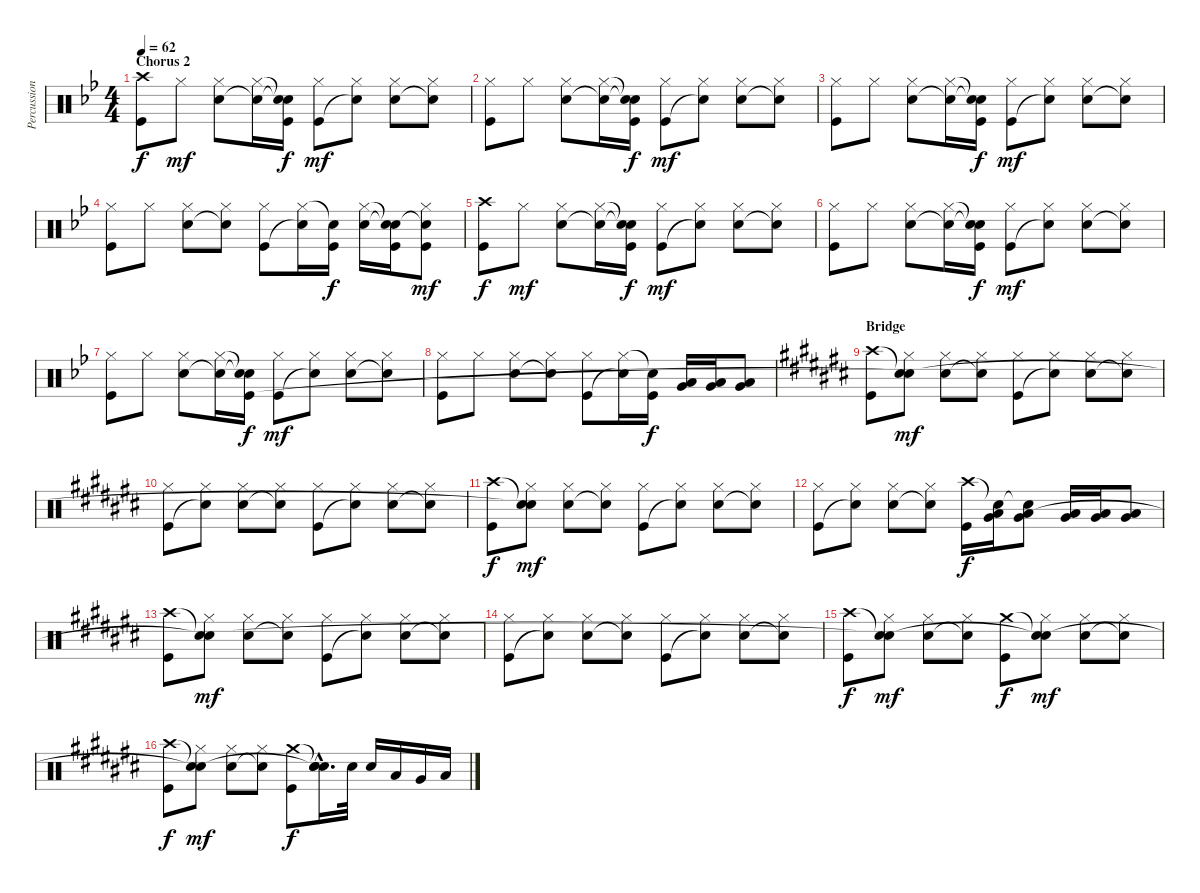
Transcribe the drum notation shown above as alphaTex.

\track ("Percussion" "Percussion") {instrument percussion}
\staff {score}
\articulation defaults
\ts (4 4)
\section ("" "Chorus 2")
\tempo 62
\clef neutral
\ks bb
("Crash high (hit)" "Kick (hit)").8{dy f} "Hi-Hat (closed)".8{dy mf} ("Hi-Hat (closed)" "Snare (hit) 2").8 ("Hi-Hat (closed)" "Snare (hit)"{t}).16 ("Snare (hit)"{t} "Snare (hit)"{t} "Kick (hit)").16{dy f} ("Hi-Hat (closed)" "Kick (hit)").8{dy mf} ("Hi-Hat (closed)" "Snare (hit)"{t}).8 ("Hi-Hat (closed)" "Snare (hit) 2").8 ("Hi-Hat (closed)" "Snare (hit)"{t}).8 |
("Hi-Hat (closed)" "Kick (hit)").8 "Hi-Hat (closed)".8 ("Hi-Hat (closed)" "Snare (hit) 2").8 ("Hi-Hat (closed)" "Snare (hit)"{t}).16 ("Snare (hit)"{t} "Snare (hit)"{t} "Kick (hit)").16{dy f} ("Hi-Hat (closed)" "Kick (hit)").8{dy mf} ("Hi-Hat (closed)" "Snare (hit)"{t}).8 ("Hi-Hat (closed)" "Snare (hit) 2").8 ("Hi-Hat (closed)" "Snare (hit)"{t}).8 |
("Hi-Hat (closed)" "Kick (hit)").8 "Hi-Hat (closed)".8 ("Hi-Hat (closed)" "Snare (hit) 2").8 ("Hi-Hat (closed)" "Snare (hit)"{t}).16 ("Snare (hit)"{t} "Snare (hit)"{t} "Kick (hit)").16{dy f} ("Hi-Hat (closed)" "Kick (hit)").8{dy mf} ("Hi-Hat (closed)" "Snare (hit)"{t}).8 ("Hi-Hat (closed)" "Snare (hit) 2").8 ("Hi-Hat (closed)" "Snare (hit)"{t}).8 |
("Hi-Hat (closed)" "Kick (hit)").8 "Hi-Hat (closed)".8 ("Hi-Hat (closed)" "Snare (hit) 2").8 ("Hi-Hat (closed)" "Snare (hit)"{t}).8 ("Hi-Hat (closed)" "Kick (hit)").8 ("Hi-Hat (closed)" "Snare (hit)"{t}).16 ("Snare (hit)"{t} "Kick (hit)").16{dy f} ("Hi-Hat (closed)" "Snare (hit) 2").16 ("Snare (hit)"{t} "Snare (hit)"{t} "Kick (hit)").16 ("Hi-Hat (closed)" "Snare (hit)"{t} "Kick (hit)").8{dy mf} |
("Crash high (hit)" "Kick (hit)").8{dy f} "Hi-Hat (closed)".8{dy mf} ("Hi-Hat (closed)" "Snare (hit) 2").8 ("Hi-Hat (closed)" "Snare (hit)"{t}).16 ("Snare (hit)"{t} "Snare (hit)"{t} "Kick (hit)").16{dy f} ("Hi-Hat (closed)" "Kick (hit)").8{dy mf} ("Hi-Hat (closed)" "Snare (hit)"{t}).8 ("Hi-Hat (closed)" "Snare (hit) 2").8 ("Hi-Hat (closed)" "Snare (hit)"{t}).8 |
("Hi-Hat (closed)" "Kick (hit)").8 "Hi-Hat (closed)".8 ("Hi-Hat (closed)" "Snare (hit) 2").8 ("Hi-Hat (closed)" "Snare (hit)"{t}).16 ("Snare (hit)"{t} "Snare (hit)"{t} "Kick (hit)").16{dy f} ("Hi-Hat (closed)" "Kick (hit)").8{dy mf} ("Hi-Hat (closed)" "Snare (hit)"{t}).8 ("Hi-Hat (closed)" "Snare (hit) 2").8 ("Hi-Hat (closed)" "Snare (hit)"{t}).8 |
("Hi-Hat (closed)" "Kick (hit)").8 "Hi-Hat (closed)".8 ("Hi-Hat (closed)" "Snare (hit) 2").8 ("Hi-Hat (closed)" "Snare (hit)"{t}).16 ("Snare (hit)"{t} "Snare (hit)"{t} "Kick (hit)").16{dy f} ("Hi-Hat (closed)" "Kick (hit)").8{dy mf} ("Hi-Hat (closed)" "Snare (hit)"{t}).8 ("Hi-Hat (closed)" "Snare (hit) 2").8 ("Hi-Hat (closed)" "Snare (hit)"{t}).8 |
("Hi-Hat (closed)" "Kick (hit)").8 "Hi-Hat (closed)".8 ("Hi-Hat (closed)" "Snare (hit) 2").8 ("Hi-Hat (closed)" "Snare (hit)"{t}).8 ("Hi-Hat (closed)" "Kick (hit)").8 ("Hi-Hat (closed)" "Snare (hit)"{t}).16 ("Snare (hit)"{t} "Kick (hit)").16{dy f} ("Very Low Tom (hit)" "Low Tom (hit)").16 ("Very Low Tom (hit)" "Low Tom (hit)").16 ("Low Floor Tom (hit)" "Very Low Tom (hit)").8 |
\section ("" "Bridge")
\ks c#
("Crash high (hit)" "Kick (hit)").8 ("Snare (hit)"{t} "Hi-Hat (closed)" "Snare (hit)"{t}).8{dy mf} ("Hi-Hat (closed)" "Snare (hit) 2").8 ("Hi-Hat (closed)" "Snare (hit)"{t}).8 ("Hi-Hat (closed)" "Kick (hit)").8 ("Hi-Hat (closed)" "Snare (hit)"{t}).8 ("Hi-Hat (closed)" "Snare (hit) 2").8 ("Hi-Hat (closed)" "Snare (hit)"{t}).8 |
("Hi-Hat (closed)" "Kick (hit)").8 ("Hi-Hat (closed)" "Snare (hit)"{t}).8 ("Hi-Hat (closed)" "Snare (hit) 2").8 ("Hi-Hat (closed)" "Snare (hit)"{t}).8 ("Hi-Hat (closed)" "Kick (hit)").8 ("Hi-Hat (closed)" "Snare (hit)"{t}).8 ("Hi-Hat (closed)" "Snare (hit) 2").8 ("Hi-Hat (closed)" "Snare (hit)"{t}).8 |
("Crash high (hit)" "Kick (hit)").8{dy f} ("Snare (hit)"{t} "Hi-Hat (closed)" "Snare (hit)"{t}).8{dy mf} ("Hi-Hat (closed)" "Snare (hit) 2").8 ("Hi-Hat (closed)" "Snare (hit)"{t}).8 ("Hi-Hat (closed)" "Kick (hit)").8 ("Hi-Hat (closed)" "Snare (hit)"{t}).8 ("Hi-Hat (closed)" "Snare (hit) 2").8 ("Hi-Hat (closed)" "Snare (hit)"{t}).8 |
("Hi-Hat (closed)" "Kick (hit)").8 ("Hi-Hat (closed)" "Snare (hit)"{t}).8 ("Hi-Hat (closed)" "Snare (hit) 2").8 ("Hi-Hat (closed)" "Snare (hit)"{t}).8 ("Crash high (hit)" "Kick (hit)").16{dy f} ("Snare (hit)"{t} "Very Low Tom (hit)" "Low Tom (hit)").16 ("Snare (hit)"{t} "Very Low Tom (hit)" "Low Tom (hit)").8 ("Very Low Tom (hit)" "Low Tom (hit)").16 ("Low Floor Tom (hit)" "Very Low Tom (hit)").16 ("Low Floor Tom (hit)" "Very Low Tom (hit)").8 |
("Crash high (hit)" "Kick (hit)").8 ("Snare (hit)"{t} "Hi-Hat (closed)" "Snare (hit)"{t}).8{dy mf} ("Hi-Hat (closed)" "Snare (hit) 2").8 ("Hi-Hat (closed)" "Snare (hit)"{t}).8 ("Hi-Hat (closed)" "Kick (hit)").8 ("Hi-Hat (closed)" "Snare (hit)"{t}).8 ("Hi-Hat (closed)" "Snare (hit) 2").8 ("Hi-Hat (closed)" "Snare (hit)"{t}).8 |
("Hi-Hat (closed)" "Kick (hit)").8 ("Hi-Hat (closed)" "Snare (hit)"{t}).8 ("Hi-Hat (closed)" "Snare (hit) 2").8 ("Hi-Hat (closed)" "Snare (hit)"{t}).8 ("Hi-Hat (closed)" "Kick (hit)").8 ("Hi-Hat (closed)" "Snare (hit)"{t}).8 ("Hi-Hat (closed)" "Snare (hit) 2").8 ("Hi-Hat (closed)" "Snare (hit)"{t}).8 |
("Crash high (hit)" "Kick (hit)").8{dy f} ("Snare (hit)"{t} "Hi-Hat (closed)" "Snare (hit)"{t}).8{dy mf} ("Hi-Hat (closed)" "Snare (hit) 2").8 ("Hi-Hat (closed)" "Snare (hit)"{t}).8 ("Crash medium (hit)" "Kick (hit)").8{dy f} ("Snare (hit)"{t} "Hi-Hat (closed)" "Snare (hit)"{t}).8{dy mf} ("Hi-Hat (closed)" "Snare (hit) 2").8 ("Hi-Hat (closed)" "Snare (hit)"{t}).8 |
("Crash high (hit)" "Kick (hit)").8{dy f} ("Snare (hit)"{t} "Hi-Hat (closed)" "Snare (hit)"{t}).8{dy mf} ("Hi-Hat (closed)" "Snare (hit) 2").8 ("Hi-Hat (closed)" "Snare (hit)"{t}).8 ("Crash medium (hit)" "Kick (hit)").8{dy f} ("Snare (hit)"{hac t} "Snare (hit) 2"{hac} "Snare (hit)"{hac t}).16{d} "Snare (hit) 2".32 "Snare (hit) 2".16 "Low Tom (hit)".16 "Very Low Tom (hit)".16 "Low Floor Tom (hit)".16
